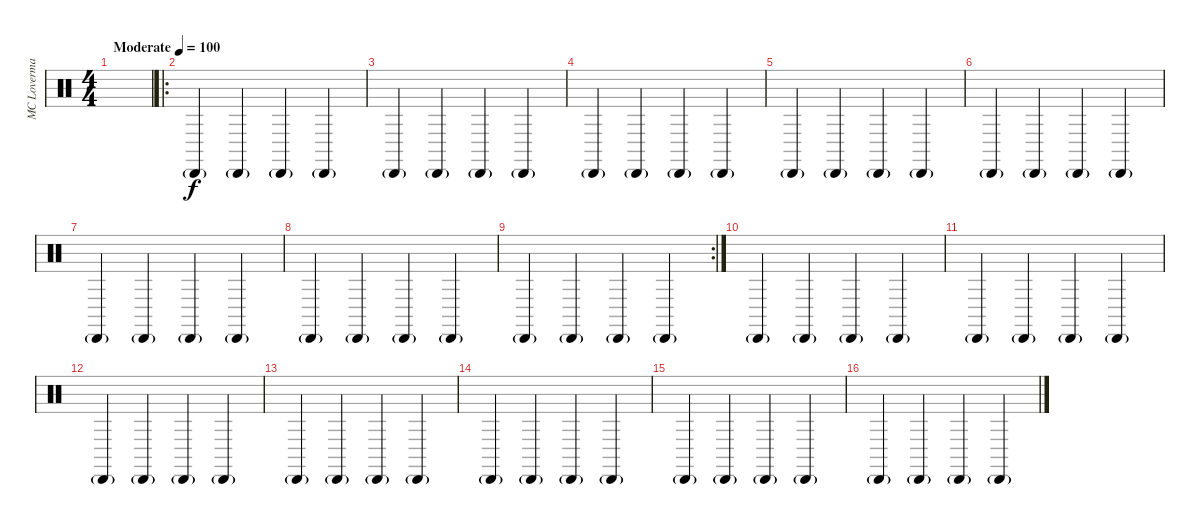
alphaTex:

\track ("MC Loverman" "MC Loverma") {instrument percussion}
\staff {score}
\articulation defaults
\ts (4 4)
\tempo (100 "Moderate")
\clef neutral
\ks c
|
\ro "Cabasa (hit)"{g}.4 "Cabasa (hit)"{g}.4 "Cabasa (hit)"{g}.4 "Cabasa (hit)"{g}.4
|
"Cabasa (hit)"{g}.4 "Cabasa (hit)"{g}.4 "Cabasa (hit)"{g}.4 "Cabasa (hit)"{g}.4 |
"Cabasa (hit)"{g}.4 "Cabasa (hit)"{g}.4 "Cabasa (hit)"{g}.4 "Cabasa (hit)"{g}.4 |
"Cabasa (hit)"{g}.4 "Cabasa (hit)"{g}.4 "Cabasa (hit)"{g}.4 "Cabasa (hit)"{g}.4 |
"Cabasa (hit)"{g}.4 "Cabasa (hit)"{g}.4 "Cabasa (hit)"{g}.4 "Cabasa (hit)"{g}.4 |
"Cabasa (hit)"{g}.4 "Cabasa (hit)"{g}.4 "Cabasa (hit)"{g}.4 "Cabasa (hit)"{g}.4 |
"Cabasa (hit)"{g}.4 "Cabasa (hit)"{g}.4 "Cabasa (hit)"{g}.4 "Cabasa (hit)"{g}.4 |
\rc 2 "Cabasa (hit)"{g}.4 "Cabasa (hit)"{g}.4 "Cabasa (hit)"{g}.4 "Cabasa (hit)"{g}.4
|
"Cabasa (hit)"{g}.4 "Cabasa (hit)"{g}.4 "Cabasa (hit)"{g}.4 "Cabasa (hit)"{g}.4 |
"Cabasa (hit)"{g}.4 "Cabasa (hit)"{g}.4 "Cabasa (hit)"{g}.4 "Cabasa (hit)"{g}.4 |
"Cabasa (hit)"{g}.4 "Cabasa (hit)"{g}.4 "Cabasa (hit)"{g}.4 "Cabasa (hit)"{g}.4 |
"Cabasa (hit)"{g}.4 "Cabasa (hit)"{g}.4 "Cabasa (hit)"{g}.4 "Cabasa (hit)"{g}.4 |
"Cabasa (hit)"{g}.4 "Cabasa (hit)"{g}.4 "Cabasa (hit)"{g}.4 "Cabasa (hit)"{g}.4 |
"Cabasa (hit)"{g}.4 "Cabasa (hit)"{g}.4 "Cabasa (hit)"{g}.4 "Cabasa (hit)"{g}.4 |
"Cabasa (hit)"{g}.4 "Cabasa (hit)"{g}.4 "Cabasa (hit)"{g}.4 "Cabasa (hit)"{g}.4
